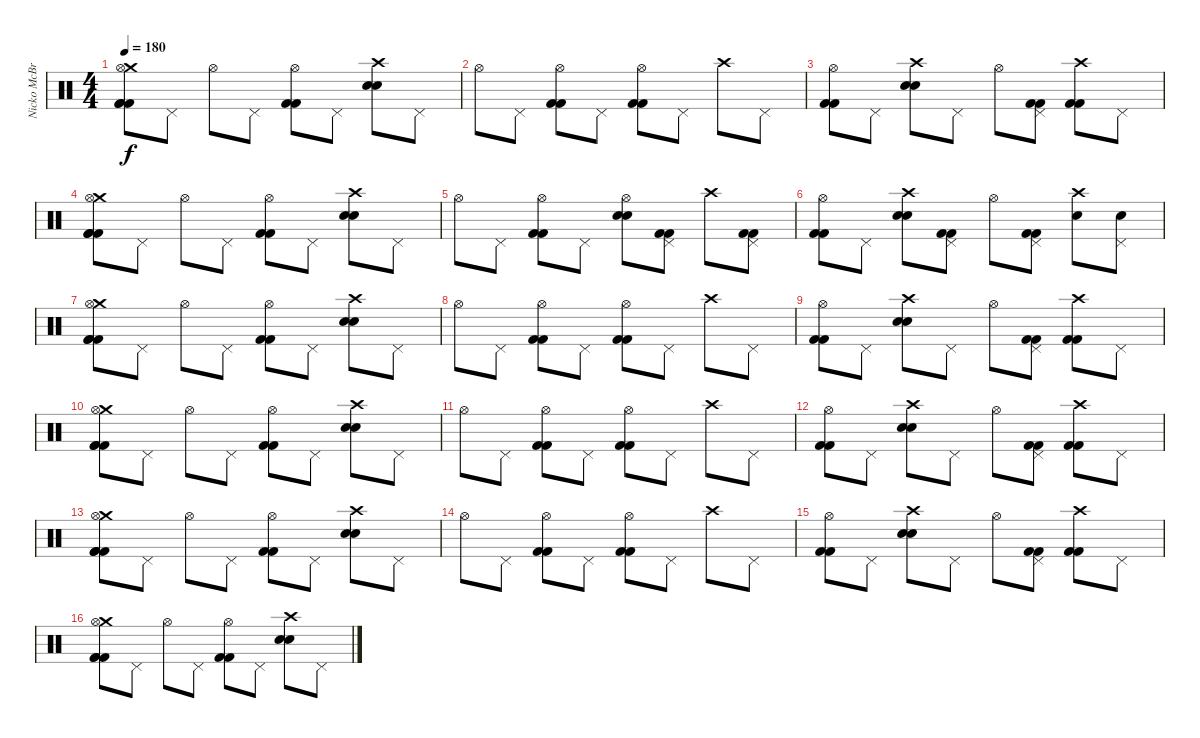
\track ("Nicko McBrain" "Nicko McBr") {instrument percussion}
\staff {score}
\articulation defaults
\ts (4 4)
\tempo 180
\clef neutral
\ks c
("Crash medium (hit)" "Hi-Hat (open)" "Kick (hit) 2" "Kick (hit) 2" "Kick (hit) 2").8{dy f} "Pedal Hi-Hat (hit)".8 "Hi-Hat (open)".8 "Pedal Hi-Hat (hit)".8 ("Hi-Hat (open)" "Kick (hit) 2" "Kick (hit) 2").8 "Pedal Hi-Hat (hit)".8 ("Crash high (hit)" "Snare (hit) 2" "Snare (hit) 2").8 "Pedal Hi-Hat (hit)".8 |
"Hi-Hat (open)".8 "Pedal Hi-Hat (hit)".8 ("Hi-Hat (open)" "Kick (hit) 2" "Kick (hit) 2").8 "Pedal Hi-Hat (hit)".8 ("Hi-Hat (open)" "Kick (hit) 2" "Kick (hit) 2").8 "Pedal Hi-Hat (hit)".8 "Crash high (hit)".8 "Pedal Hi-Hat (hit)".8 |
("Hi-Hat (open)" "Kick (hit) 2" "Kick (hit) 2").8 "Pedal Hi-Hat (hit)".8 ("Crash high (hit)" "Snare (hit) 2" "Snare (hit) 2").8 "Pedal Hi-Hat (hit)".8 "Hi-Hat (open)".8 ("Pedal Hi-Hat (hit)" "Kick (hit) 2" "Kick (hit) 2").8 ("Crash high (hit)" "Kick (hit) 2" "Kick (hit) 2").8 "Pedal Hi-Hat (hit)".8 |
("Crash medium (hit)" "Hi-Hat (open)" "Kick (hit) 2" "Kick (hit) 2" "Kick (hit) 2").8 "Pedal Hi-Hat (hit)".8 "Hi-Hat (open)".8 "Pedal Hi-Hat (hit)".8 ("Hi-Hat (open)" "Kick (hit) 2" "Kick (hit) 2").8 "Pedal Hi-Hat (hit)".8 ("Crash high (hit)" "Snare (hit) 2" "Snare (hit) 2").8 "Pedal Hi-Hat (hit)".8 |
"Hi-Hat (open)".8 "Pedal Hi-Hat (hit)".8 ("Hi-Hat (open)" "Kick (hit) 2" "Kick (hit) 2").8 "Pedal Hi-Hat (hit)".8 ("Hi-Hat (open)" "Snare (hit) 2" "Snare (hit) 2").8 ("Pedal Hi-Hat (hit)" "Kick (hit) 2" "Kick (hit) 2").8 "Crash high (hit)".8 ("Pedal Hi-Hat (hit)" "Kick (hit) 2" "Kick (hit) 2").8 |
("Hi-Hat (open)" "Kick (hit) 2" "Kick (hit) 2").8 "Pedal Hi-Hat (hit)".8 ("Crash high (hit)" "Snare (hit) 2" "Snare (hit) 2").8 ("Pedal Hi-Hat (hit)" "Kick (hit) 2" "Kick (hit) 2").8 "Hi-Hat (open)".8 ("Pedal Hi-Hat (hit)" "Kick (hit) 2" "Kick (hit) 2").8 ("Crash high (hit)" "Snare (hit) 2").8 ("Pedal Hi-Hat (hit)" "Snare (hit) 2").8 |
("Crash medium (hit)" "Hi-Hat (open)" "Kick (hit) 2" "Kick (hit) 2" "Kick (hit) 2").8 "Pedal Hi-Hat (hit)".8 "Hi-Hat (open)".8 "Pedal Hi-Hat (hit)".8 ("Hi-Hat (open)" "Kick (hit) 2" "Kick (hit) 2").8 "Pedal Hi-Hat (hit)".8 ("Crash high (hit)" "Snare (hit) 2" "Snare (hit) 2").8 "Pedal Hi-Hat (hit)".8 |
"Hi-Hat (open)".8 "Pedal Hi-Hat (hit)".8 ("Hi-Hat (open)" "Kick (hit) 2" "Kick (hit) 2").8 "Pedal Hi-Hat (hit)".8 ("Hi-Hat (open)" "Kick (hit) 2" "Kick (hit) 2").8 "Pedal Hi-Hat (hit)".8 "Crash high (hit)".8 "Pedal Hi-Hat (hit)".8 |
("Hi-Hat (open)" "Kick (hit) 2" "Kick (hit) 2").8 "Pedal Hi-Hat (hit)".8 ("Crash high (hit)" "Snare (hit) 2" "Snare (hit) 2").8 "Pedal Hi-Hat (hit)".8 "Hi-Hat (open)".8 ("Pedal Hi-Hat (hit)" "Kick (hit) 2" "Kick (hit) 2").8 ("Crash high (hit)" "Kick (hit) 2" "Kick (hit) 2").8 "Pedal Hi-Hat (hit)".8 |
("Crash medium (hit)" "Hi-Hat (open)" "Kick (hit) 2" "Kick (hit) 2" "Kick (hit) 2").8 "Pedal Hi-Hat (hit)".8 "Hi-Hat (open)".8 "Pedal Hi-Hat (hit)".8 ("Hi-Hat (open)" "Kick (hit) 2" "Kick (hit) 2").8 "Pedal Hi-Hat (hit)".8 ("Crash high (hit)" "Snare (hit) 2" "Snare (hit) 2").8 "Pedal Hi-Hat (hit)".8 |
"Hi-Hat (open)".8 "Pedal Hi-Hat (hit)".8 ("Hi-Hat (open)" "Kick (hit) 2" "Kick (hit) 2").8 "Pedal Hi-Hat (hit)".8 ("Hi-Hat (open)" "Kick (hit) 2" "Kick (hit) 2").8 "Pedal Hi-Hat (hit)".8 "Crash high (hit)".8 "Pedal Hi-Hat (hit)".8 |
("Hi-Hat (open)" "Kick (hit) 2" "Kick (hit) 2").8 "Pedal Hi-Hat (hit)".8 ("Crash high (hit)" "Snare (hit) 2" "Snare (hit) 2").8 "Pedal Hi-Hat (hit)".8 "Hi-Hat (open)".8 ("Pedal Hi-Hat (hit)" "Kick (hit) 2" "Kick (hit) 2").8 ("Crash high (hit)" "Kick (hit) 2" "Kick (hit) 2").8 "Pedal Hi-Hat (hit)".8 |
("Crash medium (hit)" "Hi-Hat (open)" "Kick (hit) 2" "Kick (hit) 2" "Kick (hit) 2").8 "Pedal Hi-Hat (hit)".8 "Hi-Hat (open)".8 "Pedal Hi-Hat (hit)".8 ("Hi-Hat (open)" "Kick (hit) 2" "Kick (hit) 2").8 "Pedal Hi-Hat (hit)".8 ("Crash high (hit)" "Snare (hit) 2" "Snare (hit) 2").8 "Pedal Hi-Hat (hit)".8 |
"Hi-Hat (open)".8 "Pedal Hi-Hat (hit)".8 ("Hi-Hat (open)" "Kick (hit) 2" "Kick (hit) 2").8 "Pedal Hi-Hat (hit)".8 ("Hi-Hat (open)" "Kick (hit) 2" "Kick (hit) 2").8 "Pedal Hi-Hat (hit)".8 "Crash high (hit)".8 "Pedal Hi-Hat (hit)".8 |
("Hi-Hat (open)" "Kick (hit) 2" "Kick (hit) 2").8 "Pedal Hi-Hat (hit)".8 ("Crash high (hit)" "Snare (hit) 2" "Snare (hit) 2").8 "Pedal Hi-Hat (hit)".8 "Hi-Hat (open)".8 ("Pedal Hi-Hat (hit)" "Kick (hit) 2" "Kick (hit) 2").8 ("Crash high (hit)" "Kick (hit) 2" "Kick (hit) 2").8 "Pedal Hi-Hat (hit)".8 |
("Crash medium (hit)" "Hi-Hat (open)" "Kick (hit) 2" "Kick (hit) 2" "Kick (hit) 2").8 "Pedal Hi-Hat (hit)".8 "Hi-Hat (open)".8 "Pedal Hi-Hat (hit)".8 ("Hi-Hat (open)" "Kick (hit) 2" "Kick (hit) 2").8 "Pedal Hi-Hat (hit)".8 ("Crash high (hit)" "Snare (hit) 2" "Snare (hit) 2").8 "Pedal Hi-Hat (hit)".8
